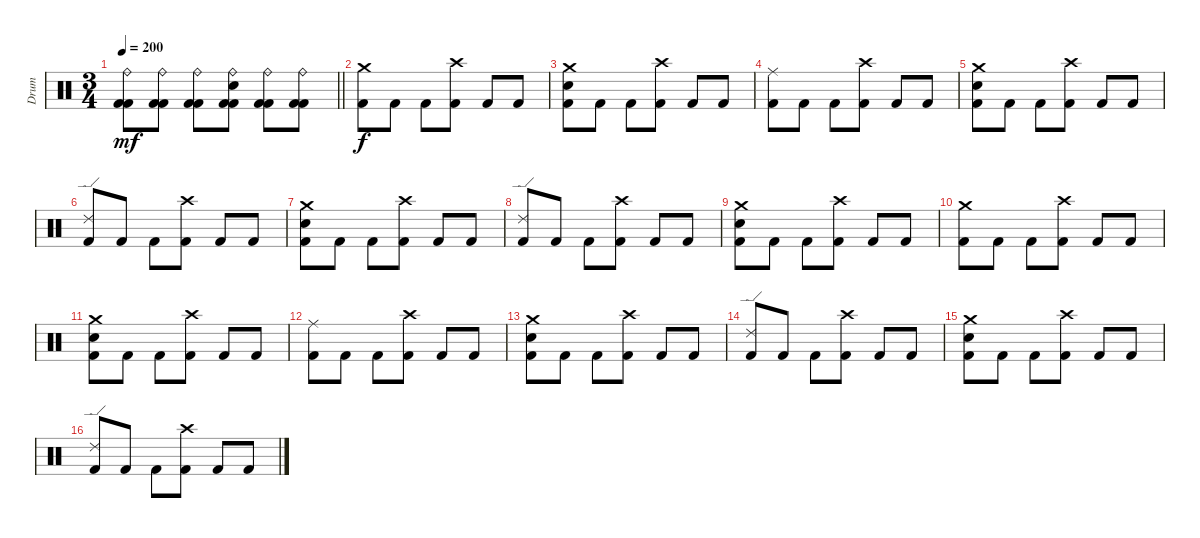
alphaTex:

\track ("Drum" "Drum") {instrument percussion}
\staff {score}
\articulation defaults
\ts (3 4)
\tempo 200
\clef neutral
\barLineRight lightlight
\ks c
("Ride (bell)" "Kick (hit) 2" "Kick (hit) 2").8{dy mf} ("Ride (bell)" "Kick (hit) 2" "Kick (hit) 2").8 ("Ride (bell)" "Kick (hit) 2" "Kick (hit) 2").8 ("Ride (bell)" "Electric Snare (hit)" "Kick (hit) 2" "Kick (hit) 2").8 ("Ride (bell)" "Kick (hit) 2" "Kick (hit) 2").8 ("Ride (bell)" "Kick (hit) 2" "Kick (hit) 2").8 |
("Crash medium (hit)" "Kick (hit) 2").8{dy f} "Kick (hit) 2".8 "Kick (hit) 2".8 ("Crash high (hit)" "Kick (hit) 2").8 "Kick (hit) 2".8 "Kick (hit) 2".8 |
("Crash medium (hit)" "Electric Snare (hit)" "Kick (hit) 2").8 "Kick (hit) 2".8 "Kick (hit) 2".8 ("Crash high (hit)" "Kick (hit) 2").8 "Kick (hit) 2".8 "Kick (hit) 2".8 |
("Ride (middle)" "Kick (hit) 2").8 "Kick (hit) 2".8 "Kick (hit) 2".8 ("Crash high (hit)" "Kick (hit) 2").8 "Kick (hit) 2".8 "Kick (hit) 2".8 |
("Crash medium (hit)" "Electric Snare (hit)" "Kick (hit) 2").8 "Kick (hit) 2".8 "Kick (hit) 2".8 ("Crash high (hit)" "Kick (hit) 2").8 "Kick (hit) 2".8 "Kick (hit) 2".8 |
("Ride (edge) 2" "Kick (hit) 2").8 "Kick (hit) 2".8 "Kick (hit) 2".8 ("Crash high (hit)" "Kick (hit) 2").8 "Kick (hit) 2".8 "Kick (hit) 2".8 |
("Crash medium (hit)" "Electric Snare (hit)" "Kick (hit) 2").8 "Kick (hit) 2".8 "Kick (hit) 2".8 ("Crash high (hit)" "Kick (hit) 2").8 "Kick (hit) 2".8 "Kick (hit) 2".8 |
("Ride (edge) 2" "Kick (hit) 2").8 "Kick (hit) 2".8 "Kick (hit) 2".8 ("Crash high (hit)" "Kick (hit) 2").8 "Kick (hit) 2".8 "Kick (hit) 2".8 |
("Crash medium (hit)" "Electric Snare (hit)" "Kick (hit) 2").8 "Kick (hit) 2".8 "Kick (hit) 2".8 ("Crash high (hit)" "Kick (hit) 2").8 "Kick (hit) 2".8 "Kick (hit) 2".8 |
("Crash medium (hit)" "Kick (hit) 2").8 "Kick (hit) 2".8 "Kick (hit) 2".8 ("Crash high (hit)" "Kick (hit) 2").8 "Kick (hit) 2".8 "Kick (hit) 2".8 |
("Crash medium (hit)" "Electric Snare (hit)" "Kick (hit) 2").8 "Kick (hit) 2".8 "Kick (hit) 2".8 ("Crash high (hit)" "Kick (hit) 2").8 "Kick (hit) 2".8 "Kick (hit) 2".8 |
("Ride (middle)" "Kick (hit) 2").8 "Kick (hit) 2".8 "Kick (hit) 2".8 ("Crash high (hit)" "Kick (hit) 2").8 "Kick (hit) 2".8 "Kick (hit) 2".8 |
("Crash medium (hit)" "Electric Snare (hit)" "Kick (hit) 2").8 "Kick (hit) 2".8 "Kick (hit) 2".8 ("Crash high (hit)" "Kick (hit) 2").8 "Kick (hit) 2".8 "Kick (hit) 2".8 |
("Ride (edge) 2" "Kick (hit) 2").8 "Kick (hit) 2".8 "Kick (hit) 2".8 ("Crash high (hit)" "Kick (hit) 2").8 "Kick (hit) 2".8 "Kick (hit) 2".8 |
("Crash medium (hit)" "Electric Snare (hit)" "Kick (hit) 2").8 "Kick (hit) 2".8 "Kick (hit) 2".8 ("Crash high (hit)" "Kick (hit) 2").8 "Kick (hit) 2".8 "Kick (hit) 2".8 |
("Ride (edge) 2" "Kick (hit) 2").8 "Kick (hit) 2".8 "Kick (hit) 2".8 ("Crash high (hit)" "Kick (hit) 2").8 "Kick (hit) 2".8 "Kick (hit) 2".8
